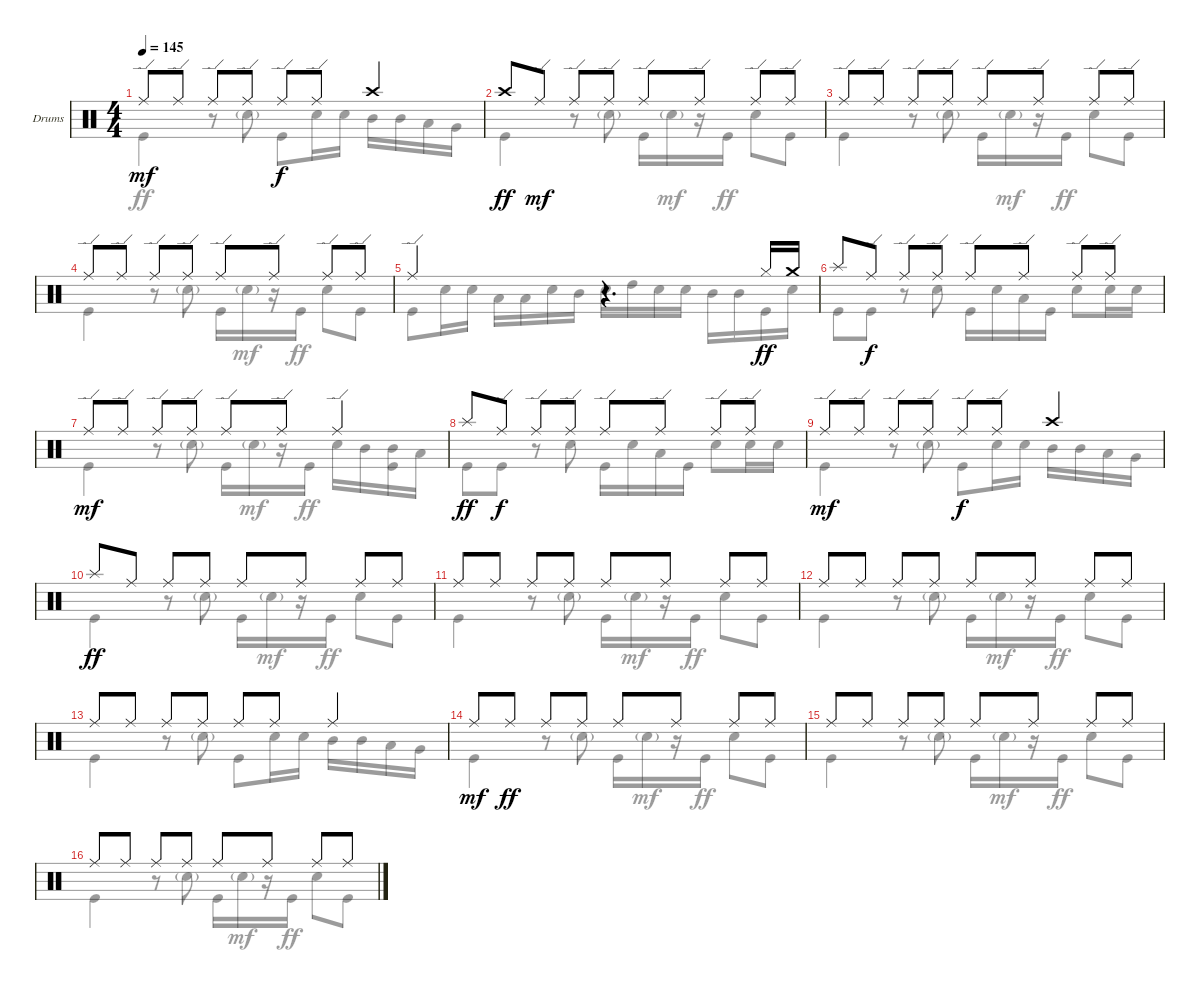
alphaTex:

\defaultSystemsLayout 4
\bracketExtendMode groupsimilarinstruments
\firstSystemTrackNameOrientation horizontal
\otherSystemsTrackNameOrientation horizontal
\track ("Drumkit" "Drums") {instrument percussion}
\staff {score}
\articulation defaults
\voice
\ts (4 4)
\tempo 145
\clef neutral
\ks c "Ride (edge)".8{dy mf} "Ride (edge)".8 "Ride (edge)".8 "Ride (edge)".8 "Ride (edge)".8{dy f} "Ride (edge)".8 "Crash high (hit)".4
|
"Crash high (hit)".8{dy ff} "Ride (edge)".8{dy mf} "Ride (edge)".8 "Ride (edge)".8 "Ride (edge)".8 "Ride (edge)".8 "Ride (edge)".8 "Ride (edge)".8 |
"Ride (edge)".8 "Ride (edge)".8 "Ride (edge)".8 "Ride (edge)".8 "Ride (edge)".8 "Ride (edge)".8 "Ride (edge)".8 "Ride (edge)".8 |
"Ride (edge)".8 "Ride (edge)".8 "Ride (edge)".8 "Ride (edge)".8 "Ride (edge)".8 "Ride (edge)".8 "Ride (edge)".8 "Ride (edge)".8 |
"Ride (edge)".2 r.4{d} "Hi-Hat (closed)".16{dy ff} "Crash medium (hit)".16 |
"Splash (hit)".8 "Ride (edge)".8{dy f} "Ride (edge)".8 "Ride (edge)".8 "Ride (edge)".8 "Ride (edge)".8 "Ride (edge)".8 "Ride (edge)".8 |
"Ride (edge)".8{dy mf} "Ride (edge)".8 "Ride (edge)".8 "Ride (edge)".8 "Ride (edge)".8 "Ride (edge)".8 "Ride (edge)".4 |
"Splash (hit)".8{dy ff} "Ride (edge)".8{dy f} "Ride (edge)".8 "Ride (edge)".8 "Ride (edge)".8 "Ride (edge)".8 "Ride (edge)".8 "Ride (edge)".8 |
"Ride (edge)".8{dy mf} "Ride (edge)".8 "Ride (edge)".8 "Ride (edge)".8 "Ride (edge)".8{dy f} "Ride (edge)".8 "Crash high (hit)".4 |
"Splash (hit)".8{dy ff} "Ride (middle)".8 "Ride (middle)".8 "Ride (middle)".8 "Ride (middle)".8 "Ride (middle)".8 "Ride (middle)".8 "Ride (middle)".8 |
"Ride (middle)".8 "Ride (middle)".8 "Ride (middle)".8 "Ride (middle)".8 "Ride (middle)".8 "Ride (middle)".8 "Ride (middle)".8 "Ride (middle)".8 |
"Ride (middle)".8 "Ride (middle)".8 "Ride (middle)".8 "Ride (middle)".8 "Ride (middle)".8 "Ride (middle)".8 "Ride (middle)".8 "Ride (middle)".8 |
"Ride (middle)".8 "Ride (middle)".8 "Ride (middle)".8 "Ride (middle)".8 "Ride (middle)".8 "Ride (middle)".8 "Ride (middle)".4 |
"Ride (middle)".8{dy mf} "Ride (middle)".8{dy ff} "Ride (middle)".8 "Ride (middle)".8 "Ride (middle)".8 "Ride (middle)".8 "Ride (middle)".8 "Ride (middle)".8 |
"Ride (middle)".8 "Ride (middle)".8 "Ride (middle)".8 "Ride (middle)".8 "Ride (middle)".8 "Ride (middle)".8 "Ride (middle)".8 "Ride (middle)".8 |
"Ride (middle)".8 "Ride (middle)".8 "Ride (middle)".8 "Ride (middle)".8 "Ride (middle)".8 "Ride (middle)".8 "Ride (middle)".8 "Ride (middle)".8
\voice
\clef neutral
\ottava regular
\simile none
\ks c "Kick (hit)".4{dy ff}
r.8 "Snare (hit) 2"{g}.8 "Kick (hit)".8 "Snare (hit) 2".16 "Snare (hit) 2".16 "Mid Tom (hit)".16 "Mid Tom (hit)".16 "Low Tom (hit)".16 "Very Low Tom (hit)".16 |
"Kick (hit)".4 r.8 "Snare (hit) 2"{g}.8 "Kick (hit)".16 "Snare (hit) 2"{g}.16{dy mf} r.16 "Kick (hit)".16{dy ff} "Snare (hit) 2".8 "Kick (hit)".8 |
"Kick (hit)".4 r.8 "Snare (hit) 2"{g}.8 "Kick (hit)".16 "Snare (hit) 2"{g}.16{dy mf} r.16 "Kick (hit)".16{dy ff} "Snare (hit) 2".8 "Kick (hit)".8 |
"Kick (hit)".4 r.8 "Snare (hit) 2"{g}.8 "Kick (hit)".16 "Snare (hit) 2"{g}.16{dy mf} r.16 "Kick (hit)".16{dy ff} "Snare (hit) 2".8 "Kick (hit)".8 |
"Kick (hit)".8 "Snare (hit) 2".16 "Snare (hit) 2".16 "Low Tom (hit)".16 "Low Tom (hit)".16 "Snare (hit) 2".16 "Mid Tom (hit)".16 "Snare (hit) 2".16 "High Tom (hit)".16 "Snare (hit) 2".16 "Snare (hit) 2".16 "Mid Tom (hit)".16 "Mid Tom (hit)".16 "Kick (hit)".16 "Snare (hit) 2".16 |
"Kick (hit)".8 "Kick (hit)".8 r.8 "Snare (hit) 2".8 "Kick (hit)".16 "Snare (hit) 2".16 "Low Tom (hit)".16 "Kick (hit)".16 "Snare (hit) 2".8 "Snare (hit) 2".16 "Snare (hit) 2".16 |
"Kick (hit)".4 r.8 "Snare (hit) 2"{g}.8 "Kick (hit)".16 "Snare (hit) 2"{g}.16{dy mf} r.16 "Kick (hit)".16{dy ff} "Snare (hit) 2".16 "Mid Tom (hit)".16 ("Mid Tom (hit)" "Kick (hit)").16 "Low Tom (hit)".16 |
"Kick (hit)".8 "Kick (hit)".8 r.8 "Snare (hit) 2".8 "Kick (hit)".16 "Snare (hit) 2".16 "Low Tom (hit)".16 "Kick (hit)".16 "Snare (hit) 2".8 "Snare (hit) 2".16 "Snare (hit) 2".16 |
"Kick (hit)".4 r.8 "Snare (hit) 2"{g}.8 "Kick (hit)".8 "Snare (hit) 2".16 "Snare (hit) 2".16 "Mid Tom (hit)".16 "Mid Tom (hit)".16 "Low Tom (hit)".16 "Very Low Tom (hit)".16 |
"Kick (hit)".4 r.8 "Snare (hit) 2"{g}.8 "Kick (hit)".16 "Snare (hit) 2"{g}.16{dy mf} r.16 "Kick (hit)".16{dy ff} "Snare (hit) 2".8 "Kick (hit)".8 |
"Kick (hit)".4 r.8 "Snare (hit) 2"{g}.8 "Kick (hit)".16 "Snare (hit) 2"{g}.16{dy mf} r.16 "Kick (hit)".16{dy ff} "Snare (hit) 2".8 "Kick (hit)".8 |
"Kick (hit)".4 r.8 "Snare (hit) 2"{g}.8 "Kick (hit)".16 "Snare (hit) 2"{g}.16{dy mf} r.16 "Kick (hit)".16{dy ff} "Snare (hit) 2".8 "Kick (hit)".8 |
"Kick (hit)".4 r.8 "Snare (hit) 2"{g}.8 "Kick (hit)".8 "Snare (hit) 2".16 "Snare (hit) 2".16 "Mid Tom (hit)".16 "Mid Tom (hit)".16 "Low Tom (hit)".16 "Very Low Tom (hit)".16 |
"Kick (hit)".4 r.8 "Snare (hit) 2"{g}.8 "Kick (hit)".16 "Snare (hit) 2"{g}.16{dy mf} r.16 "Kick (hit)".16{dy ff} "Snare (hit) 2".8 "Kick (hit)".8 |
"Kick (hit)".4 r.8 "Snare (hit) 2"{g}.8 "Kick (hit)".16 "Snare (hit) 2"{g}.16{dy mf} r.16 "Kick (hit)".16{dy ff} "Snare (hit) 2".8 "Kick (hit)".8 |
"Kick (hit)".4 r.8 "Snare (hit) 2"{g}.8 "Kick (hit)".16 "Snare (hit) 2"{g}.16{dy mf} r.16 "Kick (hit)".16{dy ff} "Snare (hit) 2".8 "Kick (hit)".8
